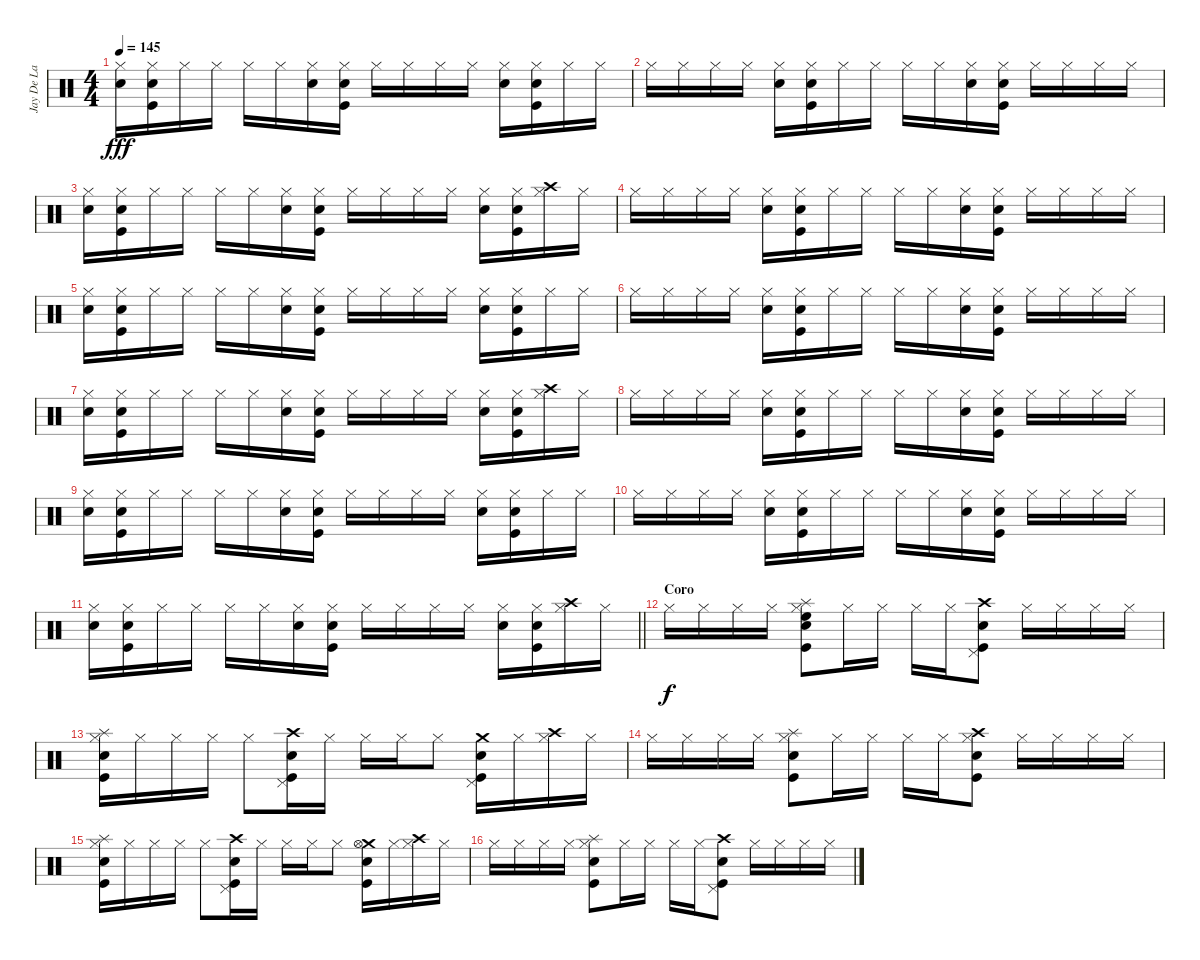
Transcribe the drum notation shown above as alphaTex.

\track ("Jay De La Cueva o C. G." "Jay De La ") {instrument percussion}
\staff {score}
\articulation defaults
\ts (4 4)
\tempo 145
\clef neutral
\ks c
("Snare (hit) 2" "Hi-Hat (closed)").16{dy fff} ("Kick (hit)" "Snare (hit) 2" "Hi-Hat (closed)").16 "Hi-Hat (closed)".16 "Hi-Hat (closed)".16 "Hi-Hat (closed)".16 "Hi-Hat (closed)".16 ("Snare (hit) 2" "Hi-Hat (closed)").16 ("Kick (hit)" "Snare (hit) 2" "Hi-Hat (closed)").16 "Hi-Hat (closed)".16 "Hi-Hat (closed)".16 "Hi-Hat (closed)".16 "Hi-Hat (closed)".16 ("Snare (hit) 2" "Hi-Hat (closed)").16 ("Kick (hit)" "Snare (hit) 2" "Hi-Hat (closed)").16 "Hi-Hat (closed)".16 "Hi-Hat (closed)".16 |
"Hi-Hat (closed)".16 "Hi-Hat (closed)".16 "Hi-Hat (closed)".16 "Hi-Hat (closed)".16 ("Snare (hit) 2" "Hi-Hat (closed)").16 ("Kick (hit)" "Snare (hit) 2" "Hi-Hat (closed)").16 "Hi-Hat (closed)".16 "Hi-Hat (closed)".16 "Hi-Hat (closed)".16 "Hi-Hat (closed)".16 ("Snare (hit) 2" "Hi-Hat (closed)").16 ("Kick (hit)" "Snare (hit) 2" "Hi-Hat (closed)").16 "Hi-Hat (closed)".16 "Hi-Hat (closed)".16 "Hi-Hat (closed)".16 "Hi-Hat (closed)".16 |
("Snare (hit) 2" "Hi-Hat (closed)").16 ("Kick (hit)" "Snare (hit) 2" "Hi-Hat (closed)").16 "Hi-Hat (closed)".16 "Hi-Hat (closed)".16 "Hi-Hat (closed)".16 "Hi-Hat (closed)".16 ("Snare (hit) 2" "Hi-Hat (closed)").16 ("Kick (hit)" "Snare (hit) 2" "Hi-Hat (closed)").16 "Hi-Hat (closed)".16 "Hi-Hat (closed)".16 "Hi-Hat (closed)".16 "Hi-Hat (closed)".16 ("Snare (hit) 2" "Hi-Hat (closed)").16 ("Kick (hit)" "Snare (hit) 2" "Hi-Hat (closed)").16 ("Crash high (hit)" "Hi-Hat (closed)").16 "Hi-Hat (closed)".16 |
"Hi-Hat (closed)".16 "Hi-Hat (closed)".16 "Hi-Hat (closed)".16 "Hi-Hat (closed)".16 ("Snare (hit) 2" "Hi-Hat (closed)").16 ("Kick (hit)" "Snare (hit) 2" "Hi-Hat (closed)").16 "Hi-Hat (closed)".16 "Hi-Hat (closed)".16 "Hi-Hat (closed)".16 "Hi-Hat (closed)".16 ("Snare (hit) 2" "Hi-Hat (closed)").16 ("Kick (hit)" "Snare (hit) 2" "Hi-Hat (closed)").16 "Hi-Hat (closed)".16 "Hi-Hat (closed)".16 "Hi-Hat (closed)".16 "Hi-Hat (closed)".16 |
("Snare (hit) 2" "Hi-Hat (closed)").16 ("Kick (hit)" "Snare (hit) 2" "Hi-Hat (closed)").16 "Hi-Hat (closed)".16 "Hi-Hat (closed)".16 "Hi-Hat (closed)".16 "Hi-Hat (closed)".16 ("Snare (hit) 2" "Hi-Hat (closed)").16 ("Kick (hit)" "Snare (hit) 2" "Hi-Hat (closed)").16 "Hi-Hat (closed)".16 "Hi-Hat (closed)".16 "Hi-Hat (closed)".16 "Hi-Hat (closed)".16 ("Snare (hit) 2" "Hi-Hat (closed)").16 ("Kick (hit)" "Snare (hit) 2" "Hi-Hat (closed)").16 "Hi-Hat (closed)".16 "Hi-Hat (closed)".16 |
"Hi-Hat (closed)".16 "Hi-Hat (closed)".16 "Hi-Hat (closed)".16 "Hi-Hat (closed)".16 ("Snare (hit) 2" "Hi-Hat (closed)").16 ("Kick (hit)" "Snare (hit) 2" "Hi-Hat (closed)").16 "Hi-Hat (closed)".16 "Hi-Hat (closed)".16 "Hi-Hat (closed)".16 "Hi-Hat (closed)".16 ("Snare (hit) 2" "Hi-Hat (closed)").16 ("Kick (hit)" "Snare (hit) 2" "Hi-Hat (closed)").16 "Hi-Hat (closed)".16 "Hi-Hat (closed)".16 "Hi-Hat (closed)".16 "Hi-Hat (closed)".16 |
("Snare (hit) 2" "Hi-Hat (closed)").16 ("Kick (hit)" "Snare (hit) 2" "Hi-Hat (closed)").16 "Hi-Hat (closed)".16 "Hi-Hat (closed)".16 "Hi-Hat (closed)".16 "Hi-Hat (closed)".16 ("Snare (hit) 2" "Hi-Hat (closed)").16 ("Kick (hit)" "Snare (hit) 2" "Hi-Hat (closed)").16 "Hi-Hat (closed)".16 "Hi-Hat (closed)".16 "Hi-Hat (closed)".16 "Hi-Hat (closed)".16 ("Snare (hit) 2" "Hi-Hat (closed)").16 ("Kick (hit)" "Snare (hit) 2" "Hi-Hat (closed)").16 ("Crash high (hit)" "Hi-Hat (closed)").16 "Hi-Hat (closed)".16 |
"Hi-Hat (closed)".16 "Hi-Hat (closed)".16 "Hi-Hat (closed)".16 "Hi-Hat (closed)".16 ("Snare (hit) 2" "Hi-Hat (closed)").16 ("Kick (hit)" "Snare (hit) 2" "Hi-Hat (closed)").16 "Hi-Hat (closed)".16 "Hi-Hat (closed)".16 "Hi-Hat (closed)".16 "Hi-Hat (closed)".16 ("Snare (hit) 2" "Hi-Hat (closed)").16 ("Kick (hit)" "Snare (hit) 2" "Hi-Hat (closed)").16 "Hi-Hat (closed)".16 "Hi-Hat (closed)".16 "Hi-Hat (closed)".16 "Hi-Hat (closed)".16 |
("Snare (hit) 2" "Hi-Hat (closed)").16 ("Kick (hit)" "Snare (hit) 2" "Hi-Hat (closed)").16 "Hi-Hat (closed)".16 "Hi-Hat (closed)".16 "Hi-Hat (closed)".16 "Hi-Hat (closed)".16 ("Snare (hit) 2" "Hi-Hat (closed)").16 ("Kick (hit)" "Snare (hit) 2" "Hi-Hat (closed)").16 "Hi-Hat (closed)".16 "Hi-Hat (closed)".16 "Hi-Hat (closed)".16 "Hi-Hat (closed)".16 ("Snare (hit) 2" "Hi-Hat (closed)").16 ("Kick (hit)" "Snare (hit) 2" "Hi-Hat (closed)").16 "Hi-Hat (closed)".16 "Hi-Hat (closed)".16 |
"Hi-Hat (closed)".16 "Hi-Hat (closed)".16 "Hi-Hat (closed)".16 "Hi-Hat (closed)".16 ("Snare (hit) 2" "Hi-Hat (closed)").16 ("Kick (hit)" "Snare (hit) 2" "Hi-Hat (closed)").16 "Hi-Hat (closed)".16 "Hi-Hat (closed)".16 "Hi-Hat (closed)".16 "Hi-Hat (closed)".16 ("Snare (hit) 2" "Hi-Hat (closed)").16 ("Kick (hit)" "Snare (hit) 2" "Hi-Hat (closed)").16 "Hi-Hat (closed)".16 "Hi-Hat (closed)".16 "Hi-Hat (closed)".16 "Hi-Hat (closed)".16 |
\barLineRight lightlight
("Snare (hit) 2" "Hi-Hat (closed)").16 ("Kick (hit)" "Snare (hit) 2" "Hi-Hat (closed)").16 "Hi-Hat (closed)".16 "Hi-Hat (closed)".16 "Hi-Hat (closed)".16 "Hi-Hat (closed)".16 ("Snare (hit) 2" "Hi-Hat (closed)").16 ("Kick (hit)" "Snare (hit) 2" "Hi-Hat (closed)").16 "Hi-Hat (closed)".16 "Hi-Hat (closed)".16 "Hi-Hat (closed)".16 "Hi-Hat (closed)".16 ("Snare (hit) 2" "Hi-Hat (closed)").16 ("Kick (hit)" "Snare (hit) 2" "Hi-Hat (closed)").16 ("Crash high (hit)" "Hi-Hat (closed)").16 "Hi-Hat (closed)".16 |
\section ("" "Coro ")
"Hi-Hat (closed)".16{dy f} "Hi-Hat (closed)".16 "Hi-Hat (closed)".16 "Hi-Hat (closed)".16 ("Splash (hit)" "Snare (hit) 2" "Hi-Hat (closed)" "Kick (hit)" "High Floor Tom (hit)").8 "Hi-Hat (closed)".16 "Hi-Hat (closed)".16 "Hi-Hat (closed)".16 "Hi-Hat (closed)".16 ("Crash high (hit)" "Snare (hit) 2" "Pedal Hi-Hat (hit)" "Kick (hit)").8 "Hi-Hat (closed)".16 "Hi-Hat (closed)".16 "Hi-Hat (closed)".16 "Hi-Hat (closed)".16 |
("Splash (hit)" "Snare (hit) 2" "Hi-Hat (closed)" "Kick (hit)").16 "Hi-Hat (closed)".16 "Hi-Hat (closed)".16 "Hi-Hat (closed)".16 "Hi-Hat (closed)".8 ("Crash high (hit)" "Snare (hit) 2" "Pedal Hi-Hat (hit)" "Kick (hit)").16 "Hi-Hat (closed)".16 "Hi-Hat (closed)".16 "Hi-Hat (closed)".16 "Hi-Hat (closed)".8 ("Crash medium (hit)" "Snare (hit) 2" "Pedal Hi-Hat (hit)" "Kick (hit)").16 "Hi-Hat (closed)".16 ("Crash high (hit)" "Hi-Hat (closed)").16 "Hi-Hat (closed)".16 |
"Hi-Hat (closed)".16 "Hi-Hat (closed)".16 "Hi-Hat (closed)".16 "Hi-Hat (closed)".16 ("Splash (hit)" "Snare (hit) 2" "Hi-Hat (closed)" "Kick (hit)").8 "Hi-Hat (closed)".16 "Hi-Hat (closed)".16 "Hi-Hat (closed)".16 "Hi-Hat (closed)".16 ("Crash high (hit)" "Snare (hit) 2" "Hi-Hat (closed)" "Kick (hit)").8 "Hi-Hat (closed)".16 "Hi-Hat (closed)".16 "Hi-Hat (closed)".16 "Hi-Hat (closed)".16 |
("Splash (hit)" "Snare (hit) 2" "Hi-Hat (closed)" "Kick (hit)").16 "Hi-Hat (closed)".16 "Hi-Hat (closed)".16 "Hi-Hat (closed)".16 "Hi-Hat (closed)".8 ("Crash high (hit)" "Snare (hit) 2" "Pedal Hi-Hat (hit)" "Kick (hit)").16 "Hi-Hat (closed)".16 "Hi-Hat (closed)".16 "Hi-Hat (closed)".16 "Hi-Hat (closed)".8 ("Crash medium (hit)" "Snare (hit) 2" "Hi-Hat (open)" "Kick (hit)").16 "Hi-Hat (closed)".16 ("Crash high (hit)" "Hi-Hat (closed)").16 "Hi-Hat (closed)".16 |
"Hi-Hat (closed)".16 "Hi-Hat (closed)".16 "Hi-Hat (closed)".16 "Hi-Hat (closed)".16 ("Splash (hit)" "Snare (hit) 2" "Hi-Hat (closed)" "Kick (hit)").8 "Hi-Hat (closed)".16 "Hi-Hat (closed)".16 "Hi-Hat (closed)".16 "Hi-Hat (closed)".16 ("Crash high (hit)" "Snare (hit) 2" "Pedal Hi-Hat (hit)" "Kick (hit)").8 "Hi-Hat (closed)".16 "Hi-Hat (closed)".16 "Hi-Hat (closed)".16 "Hi-Hat (closed)".16
